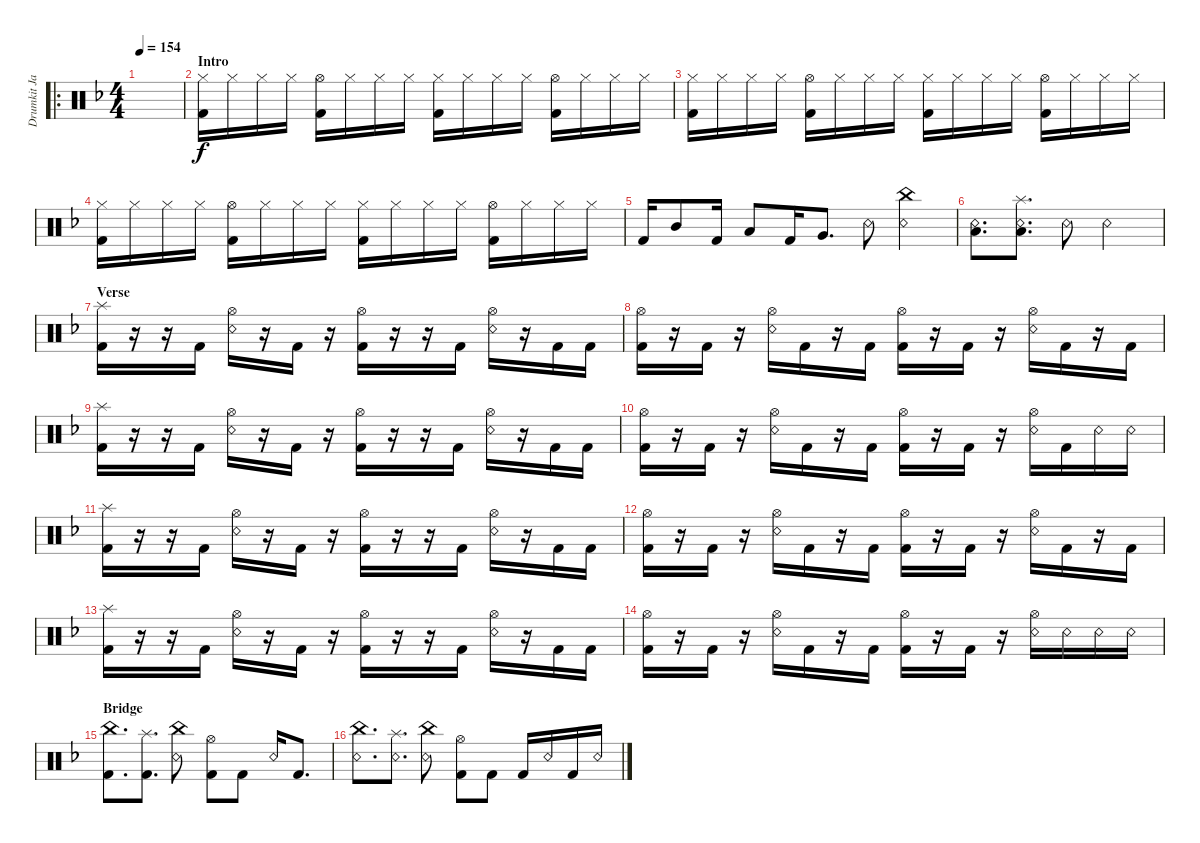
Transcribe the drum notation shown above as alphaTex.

\track ("Drumkit Jason" "Drumkit Ja") {instrument percussion}
\staff {score}
\articulation defaults
\ro
\ts (4 4)
\tempo 154
\clef neutral
\ks dminor
|
\section ("" "Intro")
("Hi-Hat (closed)" "Kick (hit) 2").16 "Hi-Hat (closed)".16 "Hi-Hat (closed)".16 "Hi-Hat (closed)".16 ("Hi-Hat (open)" "Kick (hit) 2").16 "Hi-Hat (closed)".16 "Hi-Hat (closed)".16 "Hi-Hat (closed)".16 ("Hi-Hat (closed)" "Kick (hit) 2").16 "Hi-Hat (closed)".16 "Hi-Hat (closed)".16 "Hi-Hat (closed)".16 ("Hi-Hat (open)" "Kick (hit) 2").16 "Hi-Hat (closed)".16 "Hi-Hat (closed)".16 "Hi-Hat (closed)".16 |
("Hi-Hat (closed)" "Kick (hit) 2").16 "Hi-Hat (closed)".16 "Hi-Hat (closed)".16 "Hi-Hat (closed)".16 ("Hi-Hat (open)" "Kick (hit) 2").16 "Hi-Hat (closed)".16 "Hi-Hat (closed)".16 "Hi-Hat (closed)".16 ("Hi-Hat (closed)" "Kick (hit) 2").16 "Hi-Hat (closed)".16 "Hi-Hat (closed)".16 "Hi-Hat (closed)".16 ("Hi-Hat (open)" "Kick (hit) 2").16 "Hi-Hat (closed)".16 "Hi-Hat (closed)".16 "Hi-Hat (closed)".16 |
("Hi-Hat (closed)" "Kick (hit) 2").16 "Hi-Hat (closed)".16 "Hi-Hat (closed)".16 "Hi-Hat (closed)".16 ("Hi-Hat (open)" "Kick (hit) 2").16 "Hi-Hat (closed)".16 "Hi-Hat (closed)".16 "Hi-Hat (closed)".16 ("Hi-Hat (closed)" "Kick (hit) 2").16 "Hi-Hat (closed)".16 "Hi-Hat (closed)".16 "Hi-Hat (closed)".16 ("Hi-Hat (open)" "Kick (hit) 2").16 "Hi-Hat (closed)".16 "Hi-Hat (closed)".16 "Hi-Hat (closed)".16 |
"Kick (hit) 2".16 "Mid Tom (hit)".8 "Kick (hit) 2".16 "Low Tom (hit)".8 "Kick (hit) 2".16 "Very Low Tom (hit)".8{d} "Snare (rim shot)".8 ("Snare (rim shot)" "China (hit)").4 |
("Snare (rim shot)" "Low Tom (hit)").8{d} ("Low Tom (hit)" "Snare (rim shot)" "Splash (hit)").8{d} "Snare (rim shot)".8 "Snare (rim shot)".2 |
\section ("" "Verse")
("Splash (hit)" "Kick (hit) 2").16 r.16 r.16 "Kick (hit) 2".16 ("Hi-Hat (open)" "Snare (rim shot)").16 r.16 "Kick (hit) 2".16 r.16 ("Hi-Hat (open)" "Kick (hit) 2").16 r.16 r.16 "Kick (hit) 2".16 ("Hi-Hat (open)" "Snare (rim shot)").16 r.16 "Kick (hit) 2".16 "Kick (hit) 2".16 |
("Kick (hit) 2" "Hi-Hat (open)").16 r.16 "Kick (hit) 2".16 r.16 ("Hi-Hat (open)" "Snare (rim shot)").16 "Kick (hit) 2".16 r.16 "Kick (hit) 2".16 ("Kick (hit) 2" "Hi-Hat (open)").16 r.16 "Kick (hit) 2".16 r.16 ("Hi-Hat (open)" "Snare (rim shot)").16 "Kick (hit) 2".16 r.16 "Kick (hit) 2".16 |
("Splash (hit)" "Kick (hit) 2").16 r.16 r.16 "Kick (hit) 2".16 ("Hi-Hat (open)" "Snare (rim shot)").16 r.16 "Kick (hit) 2".16 r.16 ("Hi-Hat (open)" "Kick (hit) 2").16 r.16 r.16 "Kick (hit) 2".16 ("Hi-Hat (open)" "Snare (rim shot)").16 r.16 "Kick (hit) 2".16 "Kick (hit) 2".16 |
("Kick (hit) 2" "Hi-Hat (open)").16 r.16 "Kick (hit) 2".16 r.16 ("Hi-Hat (open)" "Snare (rim shot)").16 "Kick (hit) 2".16 r.16 "Kick (hit) 2".16 ("Kick (hit) 2" "Hi-Hat (open)").16 r.16 "Kick (hit) 2".16 r.16 ("Hi-Hat (open)" "Snare (rim shot)").16 "Kick (hit) 2".16 "Snare (rim shot)".16 "Snare (rim shot)".16 |
("Splash (hit)" "Kick (hit) 2").16 r.16 r.16 "Kick (hit) 2".16 ("Hi-Hat (open)" "Snare (rim shot)").16 r.16 "Kick (hit) 2".16 r.16 ("Hi-Hat (open)" "Kick (hit) 2").16 r.16 r.16 "Kick (hit) 2".16 ("Hi-Hat (open)" "Snare (rim shot)").16 r.16 "Kick (hit) 2".16 "Kick (hit) 2".16 |
("Kick (hit) 2" "Hi-Hat (open)").16 r.16 "Kick (hit) 2".16 r.16 ("Hi-Hat (open)" "Snare (rim shot)").16 "Kick (hit) 2".16 r.16 "Kick (hit) 2".16 ("Kick (hit) 2" "Hi-Hat (open)").16 r.16 "Kick (hit) 2".16 r.16 ("Hi-Hat (open)" "Snare (rim shot)").16 "Kick (hit) 2".16 r.16 "Kick (hit) 2".16 |
("Splash (hit)" "Kick (hit) 2").16 r.16 r.16 "Kick (hit) 2".16 ("Hi-Hat (open)" "Snare (rim shot)").16 r.16 "Kick (hit) 2".16 r.16 ("Hi-Hat (open)" "Kick (hit) 2").16 r.16 r.16 "Kick (hit) 2".16 ("Hi-Hat (open)" "Snare (rim shot)").16 r.16 "Kick (hit) 2".16 "Kick (hit) 2".16 |
("Kick (hit) 2" "Hi-Hat (open)").16 r.16 "Kick (hit) 2".16 r.16 ("Hi-Hat (open)" "Snare (rim shot)").16 "Kick (hit) 2".16 r.16 "Kick (hit) 2".16 ("Kick (hit) 2" "Hi-Hat (open)").16 r.16 "Kick (hit) 2".16 r.16 ("Hi-Hat (open)" "Snare (rim shot)").16 "Snare (rim shot)".16 "Snare (rim shot)".16 "Snare (rim shot)".16 |
\section ("" "Bridge")
("China (hit)" "Kick (hit) 2").8{d} ("Splash (hit)" "Kick (hit) 2").8{d} ("China (hit)" "Snare (rim shot)").8 ("Kick (hit) 2" "Hi-Hat (open)").8 "Kick (hit) 2".8 "Snare (rim shot)".16 "Kick (hit) 2".8{d} |
("China (hit)" "Snare (rim shot)").8{d} ("Splash (hit)" "Snare (rim shot)").8{d} ("China (hit)" "Snare (rim shot)").8 ("Kick (hit) 2" "Hi-Hat (open)").8 "Kick (hit) 2".8 "Kick (hit) 2".16 "Snare (rim shot)".16 "Kick (hit) 2".16 "Snare (rim shot)".16
